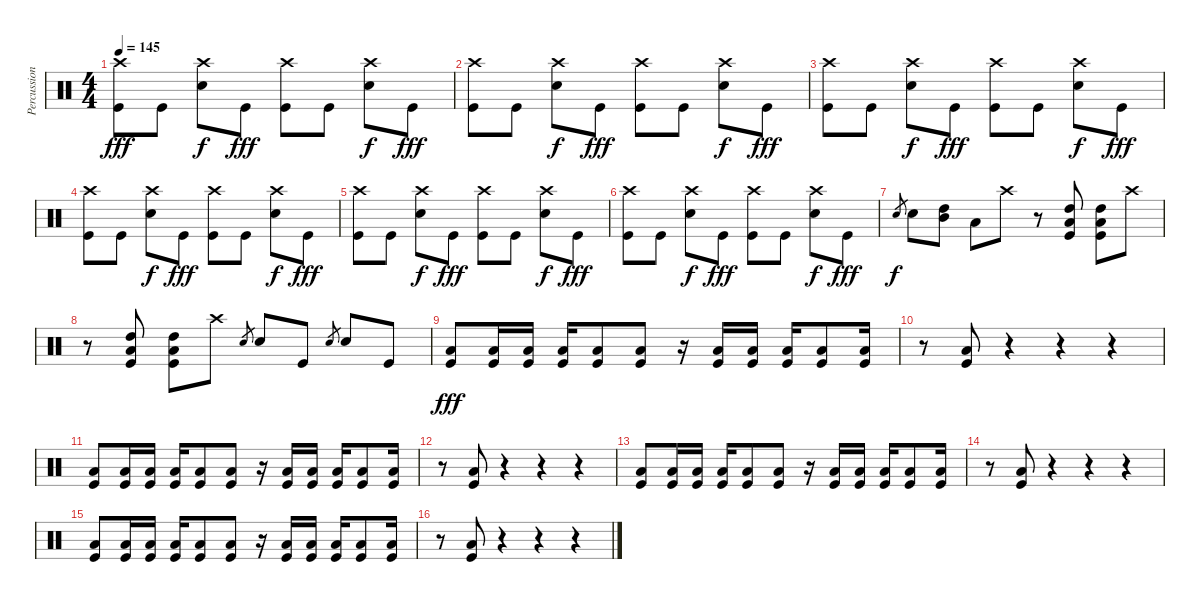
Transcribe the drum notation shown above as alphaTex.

\track ("Percussion" "Percussion") {instrument percussion}
\staff {score}
\articulation defaults
\ts (4 4)
\tempo 145
\clef neutral
\ks c
("Crash high (hit)" "Kick (hit)").8{dy fff} "Kick (hit)".8 ("Crash high (hit)" "Electric Snare (hit)").8{dy f} "Kick (hit)".8{dy fff} ("Crash high (hit)" "Kick (hit)").8 "Kick (hit)".8 ("Crash high (hit)" "Electric Snare (hit)").8{dy f} "Kick (hit)".8{dy fff} |
("Crash high (hit)" "Kick (hit)").8 "Kick (hit)".8 ("Crash high (hit)" "Electric Snare (hit)").8{dy f} "Kick (hit)".8{dy fff} ("Crash high (hit)" "Kick (hit)").8 "Kick (hit)".8 ("Crash high (hit)" "Electric Snare (hit)").8{dy f} "Kick (hit)".8{dy fff} |
("Crash high (hit)" "Kick (hit)").8 "Kick (hit)".8 ("Crash high (hit)" "Electric Snare (hit)").8{dy f} "Kick (hit)".8{dy fff} ("Crash high (hit)" "Kick (hit)").8 "Kick (hit)".8 ("Crash high (hit)" "Electric Snare (hit)").8{dy f} "Kick (hit)".8{dy fff} |
("Crash high (hit)" "Kick (hit)").8 "Kick (hit)".8 ("Crash high (hit)" "Electric Snare (hit)").8{dy f} "Kick (hit)".8{dy fff} ("Crash high (hit)" "Kick (hit)").8 "Kick (hit)".8 ("Crash high (hit)" "Electric Snare (hit)").8{dy f} "Kick (hit)".8{dy fff} |
("Crash high (hit)" "Kick (hit)").8 "Kick (hit)".8 ("Crash high (hit)" "Electric Snare (hit)").8{dy f} "Kick (hit)".8{dy fff} ("Crash high (hit)" "Kick (hit)").8 "Kick (hit)".8 ("Crash high (hit)" "Electric Snare (hit)").8{dy f} "Kick (hit)".8{dy fff} |
("Crash high (hit)" "Kick (hit)").8 "Kick (hit)".8 ("Crash high (hit)" "Electric Snare (hit)").8{dy f} "Kick (hit)".8{dy fff} ("Crash high (hit)" "Kick (hit)").8 "Kick (hit)".8 ("Crash high (hit)" "Electric Snare (hit)").8{dy f} "Kick (hit)".8{dy fff} |
"Electric Snare (hit)".8{gr dy f} "Electric Snare (hit)".8 ("High Tom (hit)" "Mid Tom (hit)").8 "Low Floor Tom (hit)".8 "Crash high (hit)".8 r.8 ("High Tom (hit)" "Low Floor Tom (hit)" "Kick (hit)").8 ("High Tom (hit)" "Low Floor Tom (hit)" "Kick (hit)").8 "Crash high (hit)".8 |
r.8 ("High Tom (hit)" "Low Floor Tom (hit)" "Kick (hit)").8 ("High Tom (hit)" "Low Floor Tom (hit)" "Kick (hit)").8 "Crash high (hit)".8 "Electric Snare (hit)".8{gr} "Electric Snare (hit)".8 "Kick (hit)".8 "Electric Snare (hit)".8{gr} "Electric Snare (hit)".8 "Kick (hit)".8 |
("Low Floor Tom (hit)" "Kick (hit)").8{dy fff} ("Low Floor Tom (hit)" "Kick (hit)").16 ("Low Floor Tom (hit)" "Kick (hit)").16 ("Low Floor Tom (hit)" "Kick (hit)").16 ("Low Floor Tom (hit)" "Kick (hit)").8 ("Low Floor Tom (hit)" "Kick (hit)").8 r.16 ("Low Floor Tom (hit)" "Kick (hit)").16 ("Low Floor Tom (hit)" "Kick (hit)").16 ("Low Floor Tom (hit)" "Kick (hit)").16 ("Low Floor Tom (hit)" "Kick (hit)").8 ("Low Floor Tom (hit)" "Kick (hit)").16 |
r.8 ("Low Floor Tom (hit)" "Kick (hit)").8 r.4 r.4 r.4 |
("Low Floor Tom (hit)" "Kick (hit)").8 ("Low Floor Tom (hit)" "Kick (hit)").16 ("Low Floor Tom (hit)" "Kick (hit)").16 ("Low Floor Tom (hit)" "Kick (hit)").16 ("Low Floor Tom (hit)" "Kick (hit)").8 ("Low Floor Tom (hit)" "Kick (hit)").8 r.16 ("Low Floor Tom (hit)" "Kick (hit)").16 ("Low Floor Tom (hit)" "Kick (hit)").16 ("Low Floor Tom (hit)" "Kick (hit)").16 ("Low Floor Tom (hit)" "Kick (hit)").8 ("Low Floor Tom (hit)" "Kick (hit)").16 |
r.8 ("Low Floor Tom (hit)" "Kick (hit)").8 r.4 r.4 r.4 |
("Low Floor Tom (hit)" "Kick (hit)").8 ("Low Floor Tom (hit)" "Kick (hit)").16 ("Low Floor Tom (hit)" "Kick (hit)").16 ("Low Floor Tom (hit)" "Kick (hit)").16 ("Low Floor Tom (hit)" "Kick (hit)").8 ("Low Floor Tom (hit)" "Kick (hit)").8 r.16 ("Low Floor Tom (hit)" "Kick (hit)").16 ("Low Floor Tom (hit)" "Kick (hit)").16 ("Low Floor Tom (hit)" "Kick (hit)").16 ("Low Floor Tom (hit)" "Kick (hit)").8 ("Low Floor Tom (hit)" "Kick (hit)").16 |
r.8 ("Low Floor Tom (hit)" "Kick (hit)").8 r.4 r.4 r.4 |
("Low Floor Tom (hit)" "Kick (hit)").8 ("Low Floor Tom (hit)" "Kick (hit)").16 ("Low Floor Tom (hit)" "Kick (hit)").16 ("Low Floor Tom (hit)" "Kick (hit)").16 ("Low Floor Tom (hit)" "Kick (hit)").8 ("Low Floor Tom (hit)" "Kick (hit)").8 r.16 ("Low Floor Tom (hit)" "Kick (hit)").16 ("Low Floor Tom (hit)" "Kick (hit)").16 ("Low Floor Tom (hit)" "Kick (hit)").16 ("Low Floor Tom (hit)" "Kick (hit)").8 ("Low Floor Tom (hit)" "Kick (hit)").16 |
r.8 ("Low Floor Tom (hit)" "Kick (hit)").8 r.4 r.4 r.4
